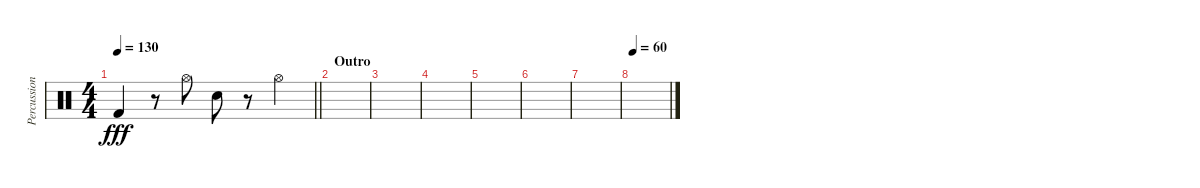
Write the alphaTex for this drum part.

\track ("Percussion" "Percussion") {instrument percussion}
\staff {score}
\articulation defaults
\ts (4 4)
\tempo 130
\clef neutral
\barLineRight lightlight
\ks c "Kick (hit) 2".4{dy fff}
r.8 "Hi-Hat (open)".8 "Snare (hit) 2".8 r.8 "Hi-Hat (open)".4 |
\section ("" "Outro")
|
|
|
|
|
|
\tempo 60
